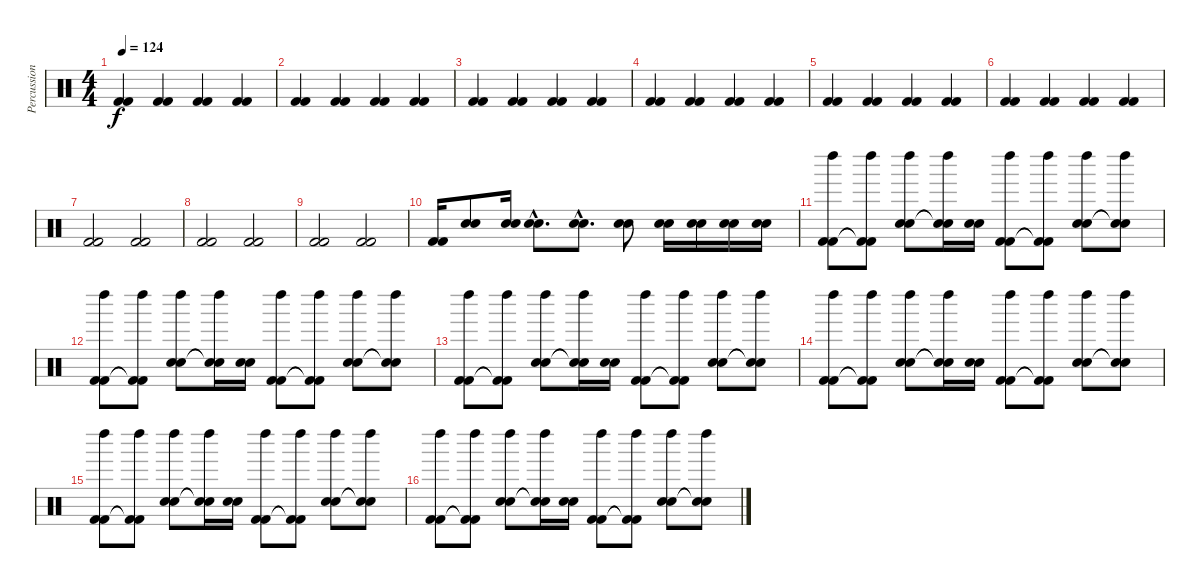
\track ("Percussions" "Percussion") {instrument percussion}
\staff {score}
\articulation defaults
\ts (4 4)
\tempo 124
\clef neutral
\ks c
("Kick (hit) 2" "Kick (hit) 2").4{dy f} ("Kick (hit) 2" "Kick (hit) 2").4 ("Kick (hit) 2" "Kick (hit) 2").4 ("Kick (hit) 2" "Kick (hit) 2").4 |
("Kick (hit) 2" "Kick (hit) 2").4 ("Kick (hit) 2" "Kick (hit) 2").4 ("Kick (hit) 2" "Kick (hit) 2").4 ("Kick (hit) 2" "Kick (hit) 2").4 |
("Kick (hit) 2" "Kick (hit) 2").4 ("Kick (hit) 2" "Kick (hit) 2").4 ("Kick (hit) 2" "Kick (hit) 2").4 ("Kick (hit) 2" "Kick (hit) 2").4 |
("Kick (hit) 2" "Kick (hit) 2").4 ("Kick (hit) 2" "Kick (hit) 2").4 ("Kick (hit) 2" "Kick (hit) 2").4 ("Kick (hit) 2" "Kick (hit) 2").4 |
("Kick (hit) 2" "Kick (hit) 2").4 ("Kick (hit) 2" "Kick (hit) 2").4 ("Kick (hit) 2" "Kick (hit) 2").4 ("Kick (hit) 2" "Kick (hit) 2").4 |
("Kick (hit) 2" "Kick (hit) 2").4 ("Kick (hit) 2" "Kick (hit) 2").4 ("Kick (hit) 2" "Kick (hit) 2").4 ("Kick (hit) 2" "Kick (hit) 2").4 |
("Kick (hit) 2" "Kick (hit) 2").2 ("Kick (hit) 2" "Kick (hit) 2").2 |
("Kick (hit) 2" "Kick (hit) 2").2 ("Kick (hit) 2" "Kick (hit) 2").2 |
("Kick (hit) 2" "Kick (hit) 2").2 ("Kick (hit) 2" "Kick (hit) 2").2 |
("Kick (hit) 2" "Kick (hit) 2").16 ("Snare (hit) 2" "Snare (hit) 2").8 ("Snare (hit) 2" "Snare (hit) 2").16 ("Snare (hit) 2"{hac} "Snare (hit) 2"{hac}).8{d} ("Snare (hit) 2"{hac} "Snare (hit) 2"{hac}).8{d} ("Snare (hit) 2" "Snare (hit) 2").8 ("Snare (hit) 2" "Snare (hit) 2").16 ("Snare (hit) 2" "Snare (hit) 2").16 ("Snare (hit) 2" "Snare (hit) 2").16 ("Snare (hit) 2" "Snare (hit) 2").16 |
("Left Maraca (hit)" "Kick (hit) 2" "Kick (hit) 2").8 ("Left Maraca (hit)" "Kick (hit) 2"{t} "Kick (hit) 2"{t}).8 ("Left Maraca (hit)" "Snare (hit) 2" "Snare (hit) 2").8 ("Left Maraca (hit)" "Snare (hit) 2"{t} "Snare (hit) 2"{t}).16 ("Snare (hit) 2" "Snare (hit) 2").16 ("Left Maraca (hit)" "Kick (hit) 2" "Kick (hit) 2").8 ("Left Maraca (hit)" "Kick (hit) 2"{t} "Kick (hit) 2"{t}).8 ("Left Maraca (hit)" "Snare (hit) 2" "Snare (hit) 2").8 ("Left Maraca (hit)" "Snare (hit) 2"{t} "Snare (hit) 2"{t}).8 |
("Left Maraca (hit)" "Kick (hit) 2" "Kick (hit) 2").8 ("Left Maraca (hit)" "Kick (hit) 2"{t} "Kick (hit) 2"{t}).8 ("Left Maraca (hit)" "Snare (hit) 2" "Snare (hit) 2").8 ("Left Maraca (hit)" "Snare (hit) 2"{t} "Snare (hit) 2"{t}).16 ("Snare (hit) 2" "Snare (hit) 2").16 ("Left Maraca (hit)" "Kick (hit) 2" "Kick (hit) 2").8 ("Left Maraca (hit)" "Kick (hit) 2"{t} "Kick (hit) 2"{t}).8 ("Left Maraca (hit)" "Snare (hit) 2" "Snare (hit) 2").8 ("Left Maraca (hit)" "Snare (hit) 2"{t} "Snare (hit) 2"{t}).8 |
("Left Maraca (hit)" "Kick (hit) 2" "Kick (hit) 2").8 ("Left Maraca (hit)" "Kick (hit) 2"{t} "Kick (hit) 2"{t}).8 ("Left Maraca (hit)" "Snare (hit) 2" "Snare (hit) 2").8 ("Left Maraca (hit)" "Snare (hit) 2"{t} "Snare (hit) 2"{t}).16 ("Snare (hit) 2" "Snare (hit) 2").16 ("Left Maraca (hit)" "Kick (hit) 2" "Kick (hit) 2").8 ("Left Maraca (hit)" "Kick (hit) 2"{t} "Kick (hit) 2"{t}).8 ("Left Maraca (hit)" "Snare (hit) 2" "Snare (hit) 2").8 ("Left Maraca (hit)" "Snare (hit) 2"{t} "Snare (hit) 2"{t}).8 |
("Left Maraca (hit)" "Kick (hit) 2" "Kick (hit) 2").8 ("Left Maraca (hit)" "Kick (hit) 2"{t} "Kick (hit) 2"{t}).8 ("Left Maraca (hit)" "Snare (hit) 2" "Snare (hit) 2").8 ("Left Maraca (hit)" "Snare (hit) 2"{t} "Snare (hit) 2"{t}).16 ("Snare (hit) 2" "Snare (hit) 2").16 ("Left Maraca (hit)" "Kick (hit) 2" "Kick (hit) 2").8 ("Left Maraca (hit)" "Kick (hit) 2"{t} "Kick (hit) 2"{t}).8 ("Left Maraca (hit)" "Snare (hit) 2" "Snare (hit) 2").8 ("Left Maraca (hit)" "Snare (hit) 2"{t} "Snare (hit) 2"{t}).8 |
("Left Maraca (hit)" "Kick (hit) 2" "Kick (hit) 2").8 ("Left Maraca (hit)" "Kick (hit) 2"{t} "Kick (hit) 2"{t}).8 ("Left Maraca (hit)" "Snare (hit) 2" "Snare (hit) 2").8 ("Left Maraca (hit)" "Snare (hit) 2"{t} "Snare (hit) 2"{t}).16 ("Snare (hit) 2" "Snare (hit) 2").16 ("Left Maraca (hit)" "Kick (hit) 2" "Kick (hit) 2").8 ("Left Maraca (hit)" "Kick (hit) 2"{t} "Kick (hit) 2"{t}).8 ("Left Maraca (hit)" "Snare (hit) 2" "Snare (hit) 2").8 ("Left Maraca (hit)" "Snare (hit) 2"{t} "Snare (hit) 2"{t}).8 |
("Left Maraca (hit)" "Kick (hit) 2" "Kick (hit) 2").8 ("Left Maraca (hit)" "Kick (hit) 2"{t} "Kick (hit) 2"{t}).8 ("Left Maraca (hit)" "Snare (hit) 2" "Snare (hit) 2").8 ("Left Maraca (hit)" "Snare (hit) 2"{t} "Snare (hit) 2"{t}).16 ("Snare (hit) 2" "Snare (hit) 2").16 ("Left Maraca (hit)" "Kick (hit) 2" "Kick (hit) 2").8 ("Left Maraca (hit)" "Kick (hit) 2"{t} "Kick (hit) 2"{t}).8 ("Left Maraca (hit)" "Snare (hit) 2" "Snare (hit) 2").8 ("Left Maraca (hit)" "Snare (hit) 2"{t} "Snare (hit) 2"{t}).8
